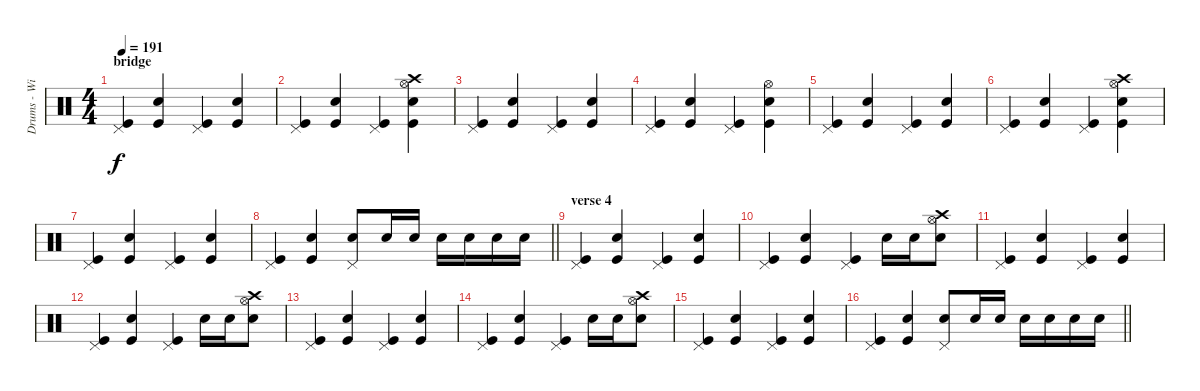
\track ("Drums - Willie Buchan" "Drums - Wi") {instrument percussion}
\staff {score}
\articulation defaults
\ts (4 4)
\section ("" "bridge")
\tempo 191
\clef neutral
\ks c
("Kick (hit)" "Pedal Hi-Hat (hit)").4{dy f} ("Kick (hit)" "Snare (hit) 2").4 ("Kick (hit)" "Pedal Hi-Hat (hit)").4 ("Kick (hit)" "Snare (hit) 2").4 |
("Kick (hit)" "Pedal Hi-Hat (hit)").4 ("Kick (hit)" "Snare (hit) 2").4 ("Kick (hit)" "Pedal Hi-Hat (hit)").4 ("Kick (hit)" "Snare (hit) 2" "Hi-Hat (open)" "Crash high (hit)").4 |
("Kick (hit)" "Pedal Hi-Hat (hit)").4 ("Kick (hit)" "Snare (hit) 2").4 ("Kick (hit)" "Pedal Hi-Hat (hit)").4 ("Kick (hit)" "Snare (hit) 2").4 |
("Kick (hit)" "Pedal Hi-Hat (hit)").4 ("Kick (hit)" "Snare (hit) 2").4 ("Kick (hit)" "Pedal Hi-Hat (hit)").4 ("Kick (hit)" "Snare (hit) 2" "Hi-Hat (open)").4 |
("Kick (hit)" "Pedal Hi-Hat (hit)").4 ("Kick (hit)" "Snare (hit) 2").4 ("Kick (hit)" "Pedal Hi-Hat (hit)").4 ("Kick (hit)" "Snare (hit) 2").4 |
("Kick (hit)" "Pedal Hi-Hat (hit)").4 ("Kick (hit)" "Snare (hit) 2").4 ("Kick (hit)" "Pedal Hi-Hat (hit)").4 ("Kick (hit)" "Snare (hit) 2" "Hi-Hat (open)" "Crash high (hit)").4 |
("Kick (hit)" "Pedal Hi-Hat (hit)").4 ("Kick (hit)" "Snare (hit) 2").4 ("Kick (hit)" "Pedal Hi-Hat (hit)").4 ("Kick (hit)" "Snare (hit) 2").4 |
\barLineRight lightlight
("Kick (hit)" "Pedal Hi-Hat (hit)").4 ("Kick (hit)" "Snare (hit) 2").4 ("Snare (hit) 2" "Pedal Hi-Hat (hit)").8 "Snare (hit) 2".16 "Snare (hit) 2".16 "Snare (hit) 2".16 "Snare (hit) 2".16 "Snare (hit) 2".16 "Snare (hit) 2".16 |
\section ("" "verse 4")
("Kick (hit)" "Pedal Hi-Hat (hit)").4 ("Kick (hit)" "Snare (hit) 2").4 ("Kick (hit)" "Pedal Hi-Hat (hit)").4 ("Kick (hit)" "Snare (hit) 2").4 |
("Kick (hit)" "Pedal Hi-Hat (hit)").4 ("Kick (hit)" "Snare (hit) 2").4 ("Kick (hit)" "Pedal Hi-Hat (hit)").4 "Snare (hit) 2".16 "Snare (hit) 2".16 ("Snare (hit) 2" "Hi-Hat (open)" "Crash high (hit)").8 |
("Kick (hit)" "Pedal Hi-Hat (hit)").4 ("Kick (hit)" "Snare (hit) 2").4 ("Kick (hit)" "Pedal Hi-Hat (hit)").4 ("Kick (hit)" "Snare (hit) 2").4 |
("Kick (hit)" "Pedal Hi-Hat (hit)").4 ("Kick (hit)" "Snare (hit) 2").4 ("Kick (hit)" "Pedal Hi-Hat (hit)").4 "Snare (hit) 2".16 "Snare (hit) 2".16 ("Snare (hit) 2" "Hi-Hat (open)" "Crash high (hit)").8 |
("Kick (hit)" "Pedal Hi-Hat (hit)").4 ("Kick (hit)" "Snare (hit) 2").4 ("Kick (hit)" "Pedal Hi-Hat (hit)").4 ("Kick (hit)" "Snare (hit) 2").4 |
("Kick (hit)" "Pedal Hi-Hat (hit)").4 ("Kick (hit)" "Snare (hit) 2").4 ("Kick (hit)" "Pedal Hi-Hat (hit)").4 "Snare (hit) 2".16 "Snare (hit) 2".16 ("Snare (hit) 2" "Hi-Hat (open)" "Crash high (hit)").8 |
("Kick (hit)" "Pedal Hi-Hat (hit)").4 ("Kick (hit)" "Snare (hit) 2").4 ("Kick (hit)" "Pedal Hi-Hat (hit)").4 ("Kick (hit)" "Snare (hit) 2").4 |
\barLineRight lightlight
("Kick (hit)" "Pedal Hi-Hat (hit)").4 ("Kick (hit)" "Snare (hit) 2").4 ("Snare (hit) 2" "Pedal Hi-Hat (hit)").8 "Snare (hit) 2".16 "Snare (hit) 2".16 "Snare (hit) 2".16 "Snare (hit) 2".16 "Snare (hit) 2".16 "Snare (hit) 2".16
